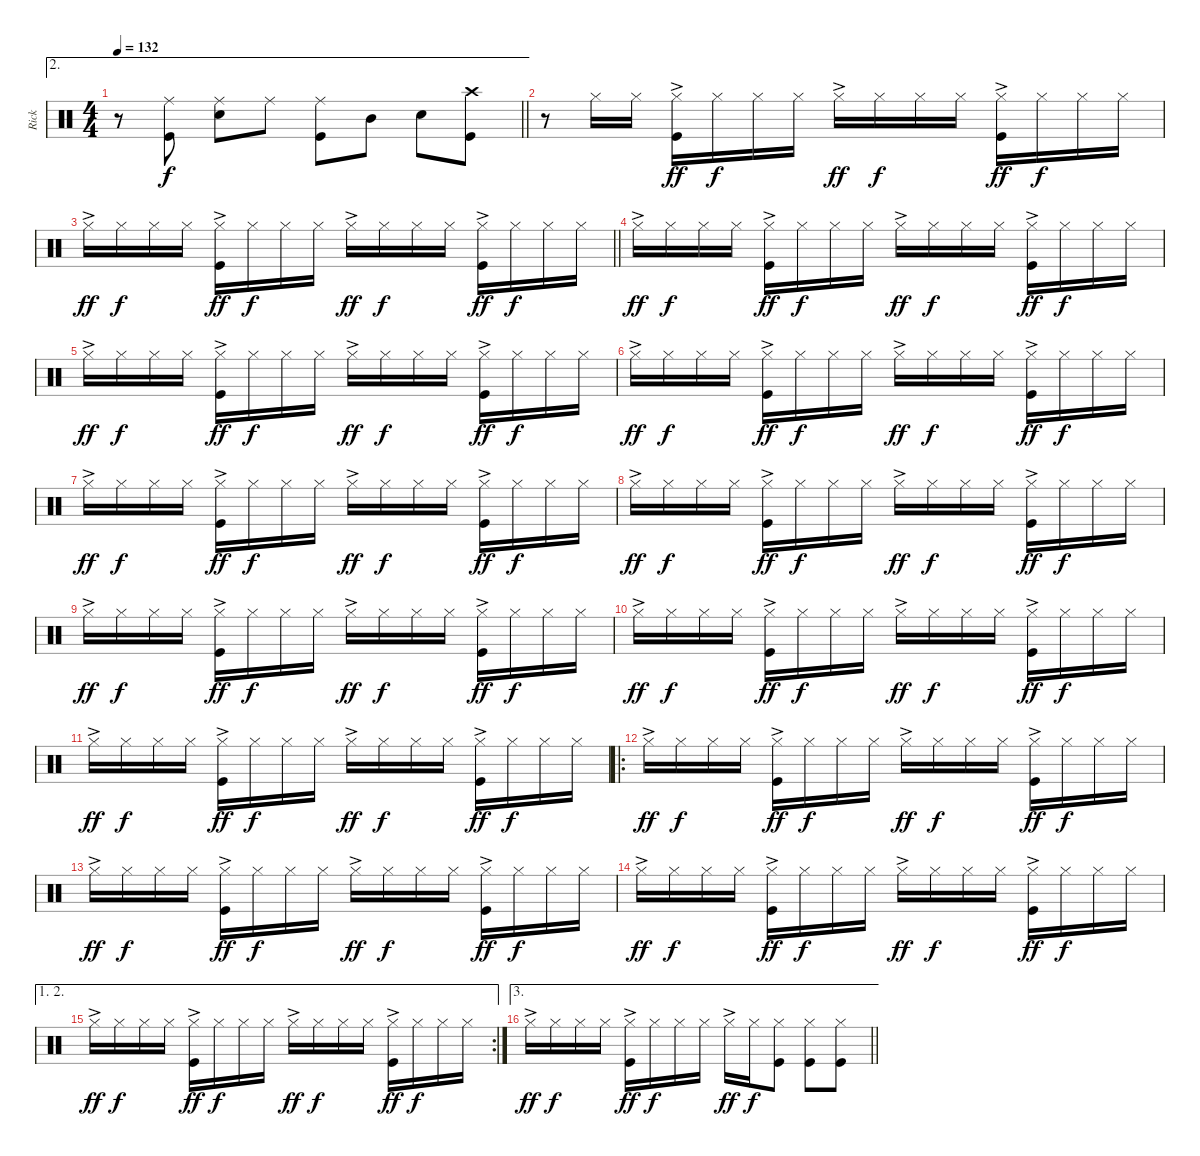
\track ("Rick" "Rick") {instrument percussion}
\staff {score}
\articulation defaults
\ae 2
\ts (4 4)
\tempo 132
\clef neutral
\barLineRight lightlight
\ks aminor
r.8{dy f} ("Ride (middle)" "Kick (hit)").8 ("Ride (middle)" "Snare (hit) 2").8 "Ride (middle)".8 ("Ride (middle)" "Kick (hit)").8 "Mid Tom (hit)".8 "Snare (hit) 2".8 ("Crash high (hit)" "Kick (hit)").8 |
r.8 "Hi-Hat (closed)".16 "Hi-Hat (closed)".16 ("Hi-Hat (closed)"{ac} "Kick (hit)").16{dy ff} "Hi-Hat (closed)".16{dy f} "Hi-Hat (closed)".16 "Hi-Hat (closed)".16 "Hi-Hat (closed)"{ac}.16{dy ff} "Hi-Hat (closed)".16{dy f} "Hi-Hat (closed)".16 "Hi-Hat (closed)".16 ("Hi-Hat (closed)"{ac} "Kick (hit)").16{dy ff} "Hi-Hat (closed)".16{dy f} "Hi-Hat (closed)".16 "Hi-Hat (closed)".16 |
\barLineRight lightlight "Hi-Hat (closed)"{ac}.16{dy ff} "Hi-Hat (closed)".16{dy f} "Hi-Hat (closed)".16 "Hi-Hat (closed)".16
("Hi-Hat (closed)"{ac} "Kick (hit)").16{dy ff} "Hi-Hat (closed)".16{dy f} "Hi-Hat (closed)".16 "Hi-Hat (closed)".16 "Hi-Hat (closed)"{ac}.16{dy ff} "Hi-Hat (closed)".16{dy f} "Hi-Hat (closed)".16 "Hi-Hat (closed)".16 ("Hi-Hat (closed)"{ac} "Kick (hit)").16{dy ff} "Hi-Hat (closed)".16{dy f} "Hi-Hat (closed)".16 "Hi-Hat (closed)".16 |
"Hi-Hat (closed)"{ac}.16{dy ff} "Hi-Hat (closed)".16{dy f} "Hi-Hat (closed)".16 "Hi-Hat (closed)".16 ("Hi-Hat (closed)"{ac} "Kick (hit)").16{dy ff} "Hi-Hat (closed)".16{dy f} "Hi-Hat (closed)".16 "Hi-Hat (closed)".16 "Hi-Hat (closed)"{ac}.16{dy ff} "Hi-Hat (closed)".16{dy f} "Hi-Hat (closed)".16 "Hi-Hat (closed)".16 ("Hi-Hat (closed)"{ac} "Kick (hit)").16{dy ff} "Hi-Hat (closed)".16{dy f} "Hi-Hat (closed)".16 "Hi-Hat (closed)".16 |
"Hi-Hat (closed)"{ac}.16{dy ff} "Hi-Hat (closed)".16{dy f} "Hi-Hat (closed)".16 "Hi-Hat (closed)".16 ("Hi-Hat (closed)"{ac} "Kick (hit)").16{dy ff} "Hi-Hat (closed)".16{dy f} "Hi-Hat (closed)".16 "Hi-Hat (closed)".16 "Hi-Hat (closed)"{ac}.16{dy ff} "Hi-Hat (closed)".16{dy f} "Hi-Hat (closed)".16 "Hi-Hat (closed)".16 ("Hi-Hat (closed)"{ac} "Kick (hit)").16{dy ff} "Hi-Hat (closed)".16{dy f} "Hi-Hat (closed)".16 "Hi-Hat (closed)".16 |
"Hi-Hat (closed)"{ac}.16{dy ff} "Hi-Hat (closed)".16{dy f} "Hi-Hat (closed)".16 "Hi-Hat (closed)".16 ("Hi-Hat (closed)"{ac} "Kick (hit)").16{dy ff} "Hi-Hat (closed)".16{dy f} "Hi-Hat (closed)".16 "Hi-Hat (closed)".16 "Hi-Hat (closed)"{ac}.16{dy ff} "Hi-Hat (closed)".16{dy f} "Hi-Hat (closed)".16 "Hi-Hat (closed)".16 ("Hi-Hat (closed)"{ac} "Kick (hit)").16{dy ff} "Hi-Hat (closed)".16{dy f} "Hi-Hat (closed)".16 "Hi-Hat (closed)".16 |
"Hi-Hat (closed)"{ac}.16{dy ff} "Hi-Hat (closed)".16{dy f} "Hi-Hat (closed)".16 "Hi-Hat (closed)".16 ("Hi-Hat (closed)"{ac} "Kick (hit)").16{dy ff} "Hi-Hat (closed)".16{dy f} "Hi-Hat (closed)".16 "Hi-Hat (closed)".16 "Hi-Hat (closed)"{ac}.16{dy ff} "Hi-Hat (closed)".16{dy f} "Hi-Hat (closed)".16 "Hi-Hat (closed)".16 ("Hi-Hat (closed)"{ac} "Kick (hit)").16{dy ff} "Hi-Hat (closed)".16{dy f} "Hi-Hat (closed)".16 "Hi-Hat (closed)".16 |
"Hi-Hat (closed)"{ac}.16{dy ff} "Hi-Hat (closed)".16{dy f} "Hi-Hat (closed)".16 "Hi-Hat (closed)".16 ("Hi-Hat (closed)"{ac} "Kick (hit)").16{dy ff} "Hi-Hat (closed)".16{dy f} "Hi-Hat (closed)".16 "Hi-Hat (closed)".16 "Hi-Hat (closed)"{ac}.16{dy ff} "Hi-Hat (closed)".16{dy f} "Hi-Hat (closed)".16 "Hi-Hat (closed)".16 ("Hi-Hat (closed)"{ac} "Kick (hit)").16{dy ff} "Hi-Hat (closed)".16{dy f} "Hi-Hat (closed)".16 "Hi-Hat (closed)".16 |
"Hi-Hat (closed)"{ac}.16{dy ff} "Hi-Hat (closed)".16{dy f} "Hi-Hat (closed)".16 "Hi-Hat (closed)".16 ("Hi-Hat (closed)"{ac} "Kick (hit)").16{dy ff} "Hi-Hat (closed)".16{dy f} "Hi-Hat (closed)".16 "Hi-Hat (closed)".16 "Hi-Hat (closed)"{ac}.16{dy ff} "Hi-Hat (closed)".16{dy f} "Hi-Hat (closed)".16 "Hi-Hat (closed)".16 ("Hi-Hat (closed)"{ac} "Kick (hit)").16{dy ff} "Hi-Hat (closed)".16{dy f} "Hi-Hat (closed)".16 "Hi-Hat (closed)".16 |
"Hi-Hat (closed)"{ac}.16{dy ff} "Hi-Hat (closed)".16{dy f} "Hi-Hat (closed)".16 "Hi-Hat (closed)".16 ("Hi-Hat (closed)"{ac} "Kick (hit)").16{dy ff} "Hi-Hat (closed)".16{dy f} "Hi-Hat (closed)".16 "Hi-Hat (closed)".16 "Hi-Hat (closed)"{ac}.16{dy ff} "Hi-Hat (closed)".16{dy f} "Hi-Hat (closed)".16 "Hi-Hat (closed)".16 ("Hi-Hat (closed)"{ac} "Kick (hit)").16{dy ff} "Hi-Hat (closed)".16{dy f} "Hi-Hat (closed)".16 "Hi-Hat (closed)".16 |
"Hi-Hat (closed)"{ac}.16{dy ff} "Hi-Hat (closed)".16{dy f} "Hi-Hat (closed)".16 "Hi-Hat (closed)".16 ("Hi-Hat (closed)"{ac} "Kick (hit)").16{dy ff} "Hi-Hat (closed)".16{dy f} "Hi-Hat (closed)".16 "Hi-Hat (closed)".16 "Hi-Hat (closed)"{ac}.16{dy ff} "Hi-Hat (closed)".16{dy f} "Hi-Hat (closed)".16 "Hi-Hat (closed)".16 ("Hi-Hat (closed)"{ac} "Kick (hit)").16{dy ff} "Hi-Hat (closed)".16{dy f} "Hi-Hat (closed)".16 "Hi-Hat (closed)".16 |
\ro "Hi-Hat (closed)"{ac}.16{dy ff} "Hi-Hat (closed)".16{dy f} "Hi-Hat (closed)".16 "Hi-Hat (closed)".16
("Hi-Hat (closed)"{ac} "Kick (hit)").16{dy ff} "Hi-Hat (closed)".16{dy f} "Hi-Hat (closed)".16 "Hi-Hat (closed)".16 "Hi-Hat (closed)"{ac}.16{dy ff} "Hi-Hat (closed)".16{dy f} "Hi-Hat (closed)".16 "Hi-Hat (closed)".16 ("Hi-Hat (closed)"{ac} "Kick (hit)").16{dy ff} "Hi-Hat (closed)".16{dy f} "Hi-Hat (closed)".16 "Hi-Hat (closed)".16 |
"Hi-Hat (closed)"{ac}.16{dy ff} "Hi-Hat (closed)".16{dy f} "Hi-Hat (closed)".16 "Hi-Hat (closed)".16 ("Hi-Hat (closed)"{ac} "Kick (hit)").16{dy ff} "Hi-Hat (closed)".16{dy f} "Hi-Hat (closed)".16 "Hi-Hat (closed)".16 "Hi-Hat (closed)"{ac}.16{dy ff} "Hi-Hat (closed)".16{dy f} "Hi-Hat (closed)".16 "Hi-Hat (closed)".16 ("Hi-Hat (closed)"{ac} "Kick (hit)").16{dy ff} "Hi-Hat (closed)".16{dy f} "Hi-Hat (closed)".16 "Hi-Hat (closed)".16 |
"Hi-Hat (closed)"{ac}.16{dy ff} "Hi-Hat (closed)".16{dy f} "Hi-Hat (closed)".16 "Hi-Hat (closed)".16 ("Hi-Hat (closed)"{ac} "Kick (hit)").16{dy ff} "Hi-Hat (closed)".16{dy f} "Hi-Hat (closed)".16 "Hi-Hat (closed)".16 "Hi-Hat (closed)"{ac}.16{dy ff} "Hi-Hat (closed)".16{dy f} "Hi-Hat (closed)".16 "Hi-Hat (closed)".16 ("Hi-Hat (closed)"{ac} "Kick (hit)").16{dy ff} "Hi-Hat (closed)".16{dy f} "Hi-Hat (closed)".16 "Hi-Hat (closed)".16 |
\ae (1 2)
\rc 2 "Hi-Hat (closed)"{ac}.16{dy ff} "Hi-Hat (closed)".16{dy f} "Hi-Hat (closed)".16 "Hi-Hat (closed)".16
("Hi-Hat (closed)"{ac} "Kick (hit)").16{dy ff} "Hi-Hat (closed)".16{dy f} "Hi-Hat (closed)".16 "Hi-Hat (closed)".16 "Hi-Hat (closed)"{ac}.16{dy ff} "Hi-Hat (closed)".16{dy f} "Hi-Hat (closed)".16 "Hi-Hat (closed)".16 ("Hi-Hat (closed)"{ac} "Kick (hit)").16{dy ff} "Hi-Hat (closed)".16{dy f} "Hi-Hat (closed)".16 "Hi-Hat (closed)".16 |
\ae 3
\barLineRight lightlight "Hi-Hat (closed)"{ac}.16{dy ff} "Hi-Hat (closed)".16{dy f} "Hi-Hat (closed)".16 "Hi-Hat (closed)".16
("Hi-Hat (closed)"{ac} "Kick (hit)").16{dy ff} "Hi-Hat (closed)".16{dy f} "Hi-Hat (closed)".16 "Hi-Hat (closed)".16 "Hi-Hat (closed)"{ac}.16{dy ff} "Hi-Hat (closed)".16{dy f} ("Hi-Hat (closed)" "Kick (hit)").8 ("Hi-Hat (closed)" "Kick (hit)").8 ("Hi-Hat (closed)" "Kick (hit)").8
